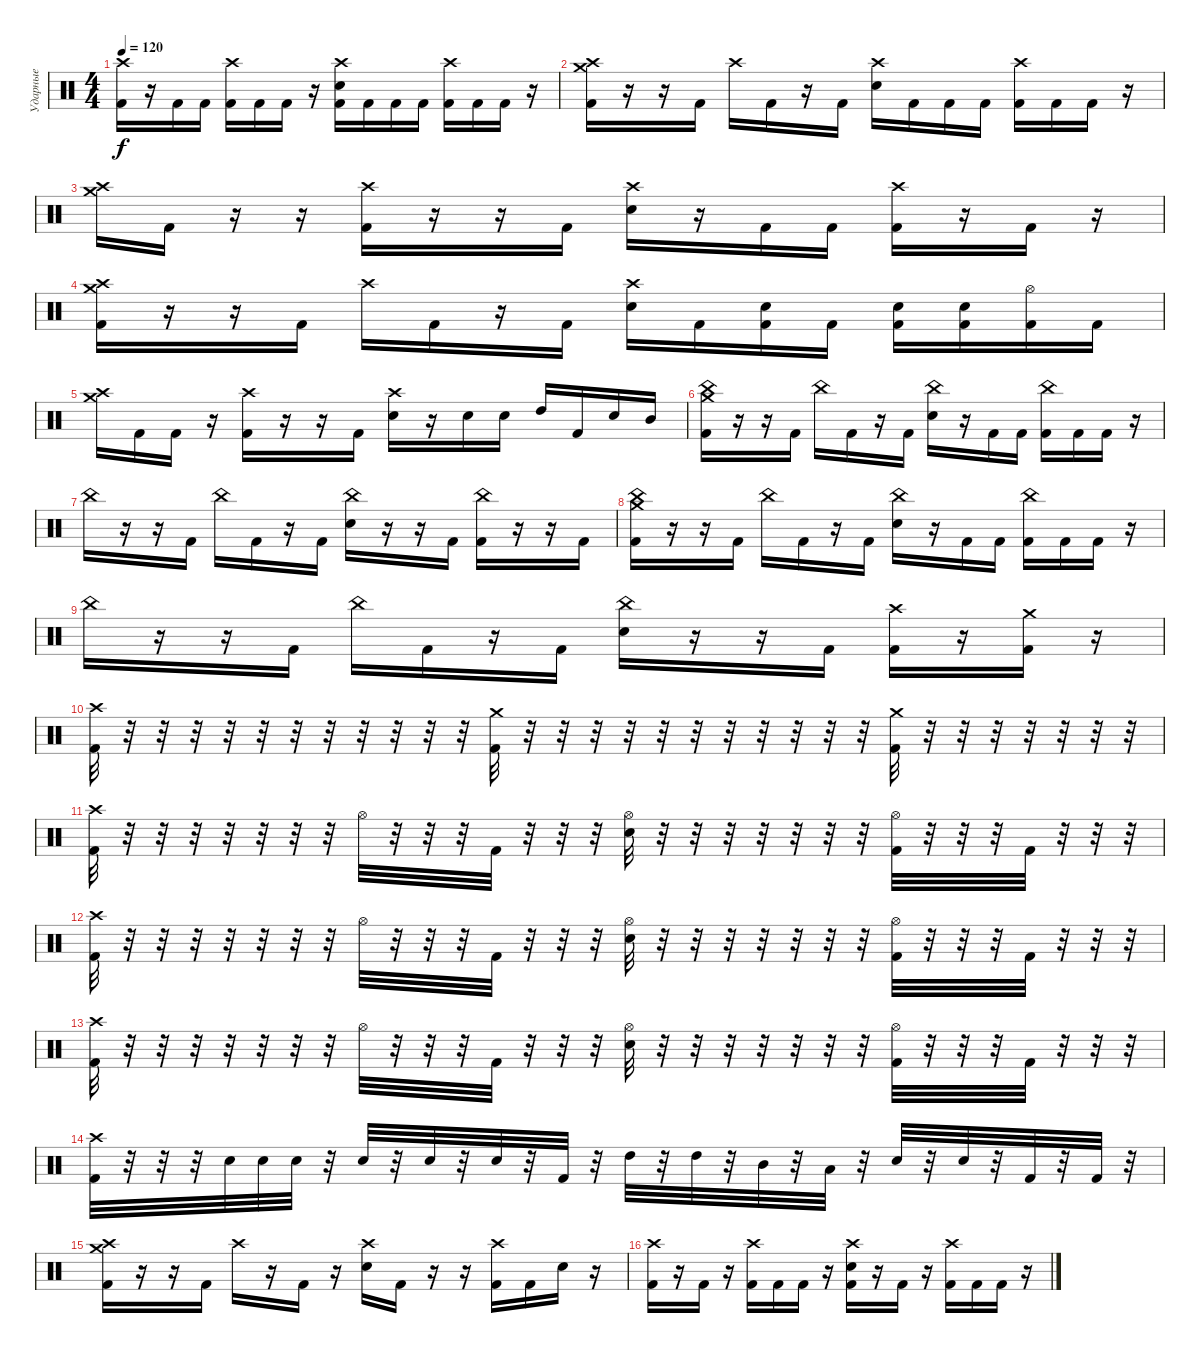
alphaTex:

\track ("Ударные" "Ударные") {instrument percussion}
\staff {score}
\articulation defaults
\ts (4 4)
\tempo 120
\clef neutral
\ks c
("Crash high (hit)" "Kick (hit) 2").16{dy f} r.16 "Kick (hit) 2".16 "Kick (hit) 2".16 ("Crash high (hit)" "Kick (hit) 2").16 "Kick (hit) 2".16 "Kick (hit) 2".16 r.16 ("Crash high (hit)" "Electric Snare (hit)" "Kick (hit) 2").16 "Kick (hit) 2".16 "Kick (hit) 2".16 "Kick (hit) 2".16 ("Crash high (hit)" "Kick (hit) 2").16 "Kick (hit) 2".16 "Kick (hit) 2".16 r.16 |
("Crash medium (hit)" "Crash high (hit)" "Kick (hit) 2").16 r.16 r.16 "Kick (hit) 2".16 "Crash high (hit)".16 "Kick (hit) 2".16 r.16 "Kick (hit) 2".16 ("Crash high (hit)" "Electric Snare (hit)").16 "Kick (hit) 2".16 "Kick (hit) 2".16 "Kick (hit) 2".16 ("Crash high (hit)" "Kick (hit) 2").16 "Kick (hit) 2".16 "Kick (hit) 2".16 r.16 |
("Crash medium (hit)" "Crash high (hit)").16 "Kick (hit) 2".16 r.16 r.16 ("Crash high (hit)" "Kick (hit) 2").16 r.16 r.16 "Kick (hit) 2".16 ("Crash high (hit)" "Electric Snare (hit)").16 r.16 "Kick (hit) 2".16 "Kick (hit) 2".16 ("Crash high (hit)" "Kick (hit) 2").16 r.16 "Kick (hit) 2".16 r.16 |
("Crash medium (hit)" "Crash high (hit)" "Kick (hit) 2").16 r.16 r.16 "Kick (hit) 2".16 "Crash high (hit)".16 "Kick (hit) 2".16 r.16 "Kick (hit) 2".16 ("Crash high (hit)" "Electric Snare (hit)").16 "Kick (hit) 2".16 ("Electric Snare (hit)" "Kick (hit) 2").16 "Kick (hit) 2".16 ("Electric Snare (hit)" "Kick (hit) 2").16 ("Electric Snare (hit)" "Kick (hit) 2").16 ("Hi-Hat (open)" "Kick (hit) 2").16 "Kick (hit) 2".16 |
("Crash medium (hit)" "Crash high (hit)").16 "Kick (hit) 2".16 "Kick (hit) 2".16 r.16 ("Crash high (hit)" "Kick (hit) 2").16 r.16 r.16 "Kick (hit) 2".16 ("Crash high (hit)" "Electric Snare (hit)").16 r.16 "Electric Snare (hit)".16 "Electric Snare (hit)".16 "High Tom (hit)".16 "Kick (hit) 2".16 "Electric Snare (hit)".16 "Mid Tom (hit)".16 |
("Crash medium (hit)" "China (hit)" "Kick (hit) 2").16 r.16 r.16 "Kick (hit) 2".16 "China (hit)".16 "Kick (hit) 2".16 r.16 "Kick (hit) 2".16 ("China (hit)" "Electric Snare (hit)").16 r.16 "Kick (hit) 2".16 "Kick (hit) 2".16 ("China (hit)" "Kick (hit) 2").16 "Kick (hit) 2".16 "Kick (hit) 2".16 r.16 |
"China (hit)".16 r.16 r.16 "Kick (hit) 2".16 "China (hit)".16 "Kick (hit) 2".16 r.16 "Kick (hit) 2".16 ("China (hit)" "Electric Snare (hit)").16 r.16 r.16 "Kick (hit) 2".16 ("China (hit)" "Kick (hit) 2").16 r.16 r.16 "Kick (hit) 2".16 |
("Crash medium (hit)" "China (hit)" "Kick (hit) 2").16 r.16 r.16 "Kick (hit) 2".16 "China (hit)".16 "Kick (hit) 2".16 r.16 "Kick (hit) 2".16 ("China (hit)" "Electric Snare (hit)").16 r.16 "Kick (hit) 2".16 "Kick (hit) 2".16 ("China (hit)" "Kick (hit) 2").16 "Kick (hit) 2".16 "Kick (hit) 2".16 r.16 |
"China (hit)".16 r.16 r.16 "Kick (hit) 2".16 "China (hit)".16 "Kick (hit) 2".16 r.16 "Kick (hit) 2".16 ("China (hit)" "Electric Snare (hit)").16 r.16 r.16 "Kick (hit) 2".16 ("Crash high (hit)" "Kick (hit) 2").16 r.16 ("Crash medium (hit)" "Kick (hit) 2").16 r.16 |
("Kick (hit) 2" "Crash high (hit)").32 r.32 r.32{volume 0} r.32 r.32 r.32 r.32 r.32 r.32 r.32 r.32 r.32 ("Crash medium (hit)" "Kick (hit) 2").32{volume 12} r.32 r.32{volume 0} r.32 r.32 r.32 r.32 r.32 r.32 r.32 r.32 r.32 ("Crash medium (hit)" "Kick (hit) 2").32{volume 12} r.32 r.32{volume 0} r.32 r.32 r.32 r.32 r.32 |
("Kick (hit) 2" "Crash high (hit)").32{volume 12} r.32 r.32 r.32 r.32 r.32 r.32 r.32 "Hi-Hat (open)".32 r.32 r.32 r.32 "Kick (hit) 2".32 r.32 r.32 r.32 ("Hi-Hat (open)" "Electric Snare (hit)").32 r.32 r.32 r.32 r.32 r.32 r.32 r.32 ("Kick (hit) 2" "Hi-Hat (open)").32 r.32 r.32 r.32 "Kick (hit) 2".32 r.32 r.32 r.32 |
("Kick (hit) 2" "Crash high (hit)").32{volume 12} r.32 r.32 r.32 r.32 r.32 r.32 r.32 "Hi-Hat (open)".32 r.32 r.32 r.32 "Kick (hit) 2".32 r.32 r.32 r.32 ("Hi-Hat (open)" "Electric Snare (hit)").32 r.32 r.32 r.32 r.32 r.32 r.32 r.32 ("Kick (hit) 2" "Hi-Hat (open)").32 r.32 r.32 r.32 "Kick (hit) 2".32 r.32 r.32 r.32 |
("Kick (hit) 2" "Crash high (hit)").32{volume 12} r.32 r.32 r.32 r.32 r.32 r.32 r.32 "Hi-Hat (open)".32 r.32 r.32 r.32 "Kick (hit) 2".32 r.32 r.32 r.32 ("Hi-Hat (open)" "Electric Snare (hit)").32 r.32 r.32 r.32 r.32 r.32 r.32 r.32 ("Kick (hit) 2" "Hi-Hat (open)").32 r.32 r.32 r.32 "Kick (hit) 2".32 r.32 r.32 r.32 |
("Kick (hit) 2" "Crash high (hit)").32 r.32 r.32 r.32 "Electric Snare (hit)".32 "Electric Snare (hit)".32 "Electric Snare (hit)".32 r.32 "Electric Snare (hit)".32 r.32 "Electric Snare (hit)".32 r.32 "Electric Snare (hit)".32 r.32 "Kick (hit) 2".32 r.32 "High Tom (hit)".32 r.32 "High Tom (hit)".32 r.32 "Mid Tom (hit)".32 r.32 "Low Tom (hit)".32 r.32 "Electric Snare (hit)".32 r.32 "Electric Snare (hit)".32 r.32 "Kick (hit) 2".32 r.32 "Kick (hit) 2".32 r.32 |
("Crash high (hit)" "Crash medium (hit)" "Kick (hit) 2").16 r.16 r.16 "Kick (hit) 2".16 "Crash high (hit)".16 r.16 "Kick (hit) 2".16 r.16 ("Crash high (hit)" "Electric Snare (hit)").16 "Kick (hit) 2".16 r.16 r.16 ("Crash high (hit)" "Kick (hit) 2").16 "Kick (hit) 2".16 "Electric Snare (hit)".16 r.16 |
("Crash high (hit)" "Kick (hit) 2").16 r.16 "Kick (hit) 2".16 r.16 ("Crash high (hit)" "Kick (hit) 2").16 "Kick (hit) 2".16 "Kick (hit) 2".16 r.16 ("Crash high (hit)" "Electric Snare (hit)" "Kick (hit) 2").16 r.16 "Kick (hit) 2".16 r.16 ("Crash high (hit)" "Kick (hit) 2").16 "Kick (hit) 2".16 "Kick (hit) 2".16 r.16
